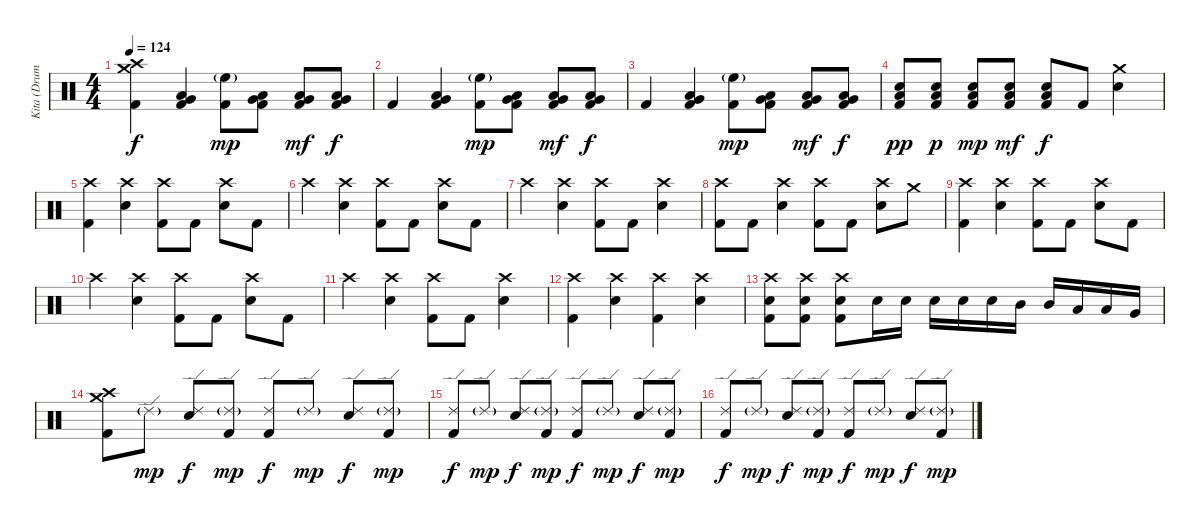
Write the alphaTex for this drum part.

\track ("Kita (Drums)" "Kita (Drum") {instrument percussion}
\staff {score}
\articulation defaults
\ts (4 4)
\tempo 124
\clef neutral
\ks c
("Crash medium (hit)" "Crash high (hit)" "Kick (hit) 2").4{dy f} ("Very Low Tom (hit)" "Low Tom (hit)" "Kick (hit) 2").4 ("High Floor Tom (hit)"{g} "Kick (hit) 2").8{dy mp} ("Very Low Tom (hit)" "Low Tom (hit)" "Kick (hit) 2").8 ("Very Low Tom (hit)" "Low Tom (hit)" "Kick (hit) 2").8{dy mf} ("Low Floor Tom (hit)" "Very Low Tom (hit)" "Kick (hit) 2").8{dy f} |
"Kick (hit) 2".4 ("Very Low Tom (hit)" "Low Tom (hit)" "Kick (hit) 2").4 ("High Floor Tom (hit)"{g} "Kick (hit) 2").8{dy mp} ("Very Low Tom (hit)" "Low Tom (hit)" "Kick (hit) 2").8 ("Very Low Tom (hit)" "Low Tom (hit)" "Kick (hit) 2").8{dy mf} ("Low Floor Tom (hit)" "Very Low Tom (hit)" "Kick (hit) 2").8{dy f} |
"Kick (hit) 2".4 ("Very Low Tom (hit)" "Low Tom (hit)" "Kick (hit) 2").4 ("High Floor Tom (hit)"{g} "Kick (hit) 2").8{dy mp} ("Very Low Tom (hit)" "Low Tom (hit)" "Kick (hit) 2").8 ("Very Low Tom (hit)" "Low Tom (hit)" "Kick (hit) 2").8{dy mf} ("Low Floor Tom (hit)" "Very Low Tom (hit)" "Kick (hit) 2").8{dy f} |
("Low Floor Tom (hit)" "Electric Snare (hit)" "Kick (hit) 2").8{dy pp} ("Low Floor Tom (hit)" "Electric Snare (hit)" "Kick (hit) 2").8{dy p} ("Low Floor Tom (hit)" "Electric Snare (hit)" "Kick (hit) 2").8{dy mp} ("Low Floor Tom (hit)" "Electric Snare (hit)" "Kick (hit) 2").8{dy mf} ("Low Floor Tom (hit)" "Electric Snare (hit)" "Kick (hit) 2").8{dy f} "Kick (hit) 2".8 ("Crash medium (hit)" "Electric Snare (hit)").4 |
("Crash high (hit)" "Kick (hit) 2").4 ("Crash high (hit)" "Electric Snare (hit)").4 ("Crash high (hit)" "Kick (hit) 2").8 "Kick (hit) 2".8 ("Crash high (hit)" "Electric Snare (hit)").8 "Kick (hit) 2".8 |
"Crash high (hit)".4 ("Crash high (hit)" "Electric Snare (hit)").4 ("Crash high (hit)" "Kick (hit) 2").8 "Kick (hit) 2".8 ("Crash high (hit)" "Electric Snare (hit)").8 "Kick (hit) 2".8 |
"Crash high (hit)".4 ("Crash high (hit)" "Electric Snare (hit)").4 ("Crash high (hit)" "Kick (hit) 2").8 "Kick (hit) 2".8 ("Crash high (hit)" "Electric Snare (hit)").4 |
("Crash high (hit)" "Kick (hit) 2").8 "Kick (hit) 2".8 ("Crash high (hit)" "Electric Snare (hit)").4 ("Crash high (hit)" "Kick (hit) 2").8 "Kick (hit) 2".8 ("Crash high (hit)" "Electric Snare (hit)").8 "Crash medium (hit)".8 |
("Crash high (hit)" "Kick (hit) 2").4 ("Crash high (hit)" "Electric Snare (hit)").4 ("Crash high (hit)" "Kick (hit) 2").8 "Kick (hit) 2".8 ("Crash high (hit)" "Electric Snare (hit)").8 "Kick (hit) 2".8 |
"Crash high (hit)".4 ("Crash high (hit)" "Electric Snare (hit)").4 ("Crash high (hit)" "Kick (hit) 2").8 "Kick (hit) 2".8 ("Crash high (hit)" "Electric Snare (hit)").8 "Kick (hit) 2".8 |
"Crash high (hit)".4 ("Crash high (hit)" "Electric Snare (hit)").4 ("Crash high (hit)" "Kick (hit) 2").8 "Kick (hit) 2".8 ("Crash high (hit)" "Electric Snare (hit)").4 |
("Crash high (hit)" "Kick (hit) 2").4 ("Crash high (hit)" "Electric Snare (hit)").4 ("Crash high (hit)" "Kick (hit) 2").4 ("Crash high (hit)" "Electric Snare (hit)").4 |
("Crash high (hit)" "Electric Snare (hit)" "Kick (hit) 2").8 ("Crash high (hit)" "Electric Snare (hit)" "Kick (hit) 2").8 ("Crash high (hit)" "Electric Snare (hit)" "Kick (hit) 2").8 "Electric Snare (hit)".16 "Electric Snare (hit)".16 "Electric Snare (hit)".16 "Electric Snare (hit)".16 "Electric Snare (hit)".16 "Mid Tom (hit)".16 "Mid Tom (hit)".16 "Low Tom (hit)".16 "Low Tom (hit)".16 "Very Low Tom (hit)".16 |
("Crash medium (hit)" "Crash high (hit)" "Kick (hit) 2").8 "Ride (edge) 2"{g}.8{dy mp} ("Ride (edge) 2" "Electric Snare (hit)").8{dy f} ("Ride (edge) 2"{g} "Kick (hit) 2").8{dy mp} ("Ride (edge) 2" "Kick (hit) 2").8{dy f} "Ride (edge) 2"{g}.8{dy mp} ("Ride (edge) 2" "Electric Snare (hit)").8{dy f} ("Ride (edge) 2"{g} "Kick (hit) 2").8{dy mp} |
("Ride (edge) 2" "Kick (hit) 2").8{dy f} "Ride (edge) 2"{g}.8{dy mp} ("Ride (edge) 2" "Electric Snare (hit)").8{dy f} ("Ride (edge) 2"{g} "Kick (hit) 2").8{dy mp} ("Ride (edge) 2" "Kick (hit) 2").8{dy f} "Ride (edge) 2"{g}.8{dy mp} ("Ride (edge) 2" "Electric Snare (hit)").8{dy f} ("Ride (edge) 2"{g} "Kick (hit) 2").8{dy mp} |
("Ride (edge) 2" "Kick (hit) 2").8{dy f} "Ride (edge) 2"{g}.8{dy mp} ("Ride (edge) 2" "Electric Snare (hit)").8{dy f} ("Ride (edge) 2"{g} "Kick (hit) 2").8{dy mp} ("Ride (edge) 2" "Kick (hit) 2").8{dy f} "Ride (edge) 2"{g}.8{dy mp} ("Ride (edge) 2" "Electric Snare (hit)").8{dy f} ("Ride (edge) 2"{g} "Kick (hit) 2").8{dy mp}
